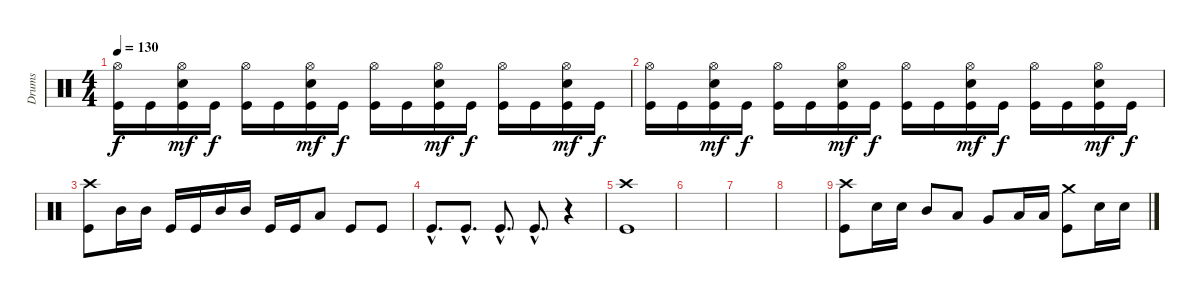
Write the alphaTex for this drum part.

\track ("Drums" "Drums") {instrument percussion}
\staff {score}
\articulation defaults
\ts (4 4)
\tempo 130
\clef neutral
\ks c
("Hi-Hat (open)" "Kick (hit)").16{dy f} "Kick (hit)".16 ("Hi-Hat (open)" "Snare (hit) 2" "Kick (hit)").16{dy mf} "Kick (hit)".16{dy f} ("Hi-Hat (open)" "Kick (hit)").16 "Kick (hit)".16 ("Hi-Hat (open)" "Snare (hit) 2" "Kick (hit)").16{dy mf} "Kick (hit)".16{dy f} ("Hi-Hat (open)" "Kick (hit)").16 "Kick (hit)".16 ("Hi-Hat (open)" "Snare (hit) 2" "Kick (hit)").16{dy mf} "Kick (hit)".16{dy f} ("Hi-Hat (open)" "Kick (hit)").16 "Kick (hit)".16 ("Hi-Hat (open)" "Snare (hit) 2" "Kick (hit)").16{dy mf} "Kick (hit)".16{dy f} |
("Hi-Hat (open)" "Kick (hit)").16 "Kick (hit)".16 ("Hi-Hat (open)" "Snare (hit) 2" "Kick (hit)").16{dy mf} "Kick (hit)".16{dy f} ("Hi-Hat (open)" "Kick (hit)").16 "Kick (hit)".16 ("Hi-Hat (open)" "Snare (hit) 2" "Kick (hit)").16{dy mf} "Kick (hit)".16{dy f} ("Hi-Hat (open)" "Kick (hit)").16 "Kick (hit)".16 ("Hi-Hat (open)" "Snare (hit) 2" "Kick (hit)").16{dy mf} "Kick (hit)".16{dy f} ("Hi-Hat (open)" "Kick (hit)").16 "Kick (hit)".16 ("Hi-Hat (open)" "Snare (hit) 2" "Kick (hit)").16{dy mf} "Kick (hit)".16{dy f} |
("Crash high (hit)" "Kick (hit)").8 "Mid Tom (hit)".16 "Mid Tom (hit)".16 "Kick (hit)".16 "Kick (hit)".16 "Mid Tom (hit)".16 "Mid Tom (hit)".16 "Kick (hit)".16 "Kick (hit)".16 "Low Tom (hit)".8 "Kick (hit)".8 "Kick (hit)".8 |
"Kick (hit)"{hac}.8{d} "Kick (hit)"{hac}.8{d} "Kick (hit)"{hac}.8{d} "Kick (hit)"{hac}.8{d} r.4 |
("Crash high (hit)" "Kick (hit)").1 |
|
|
|
("Crash high (hit)" "Kick (hit)").8 "Snare (hit) 2".16 "Snare (hit) 2".16 "Mid Tom (hit)".8 "Low Tom (hit)".8 "Very Low Tom (hit)".8 "Low Floor Tom (hit)".16 "Low Floor Tom (hit)".16 ("Crash medium (hit)" "Kick (hit)").8 "Snare (hit) 2".16 "Snare (hit) 2".16
